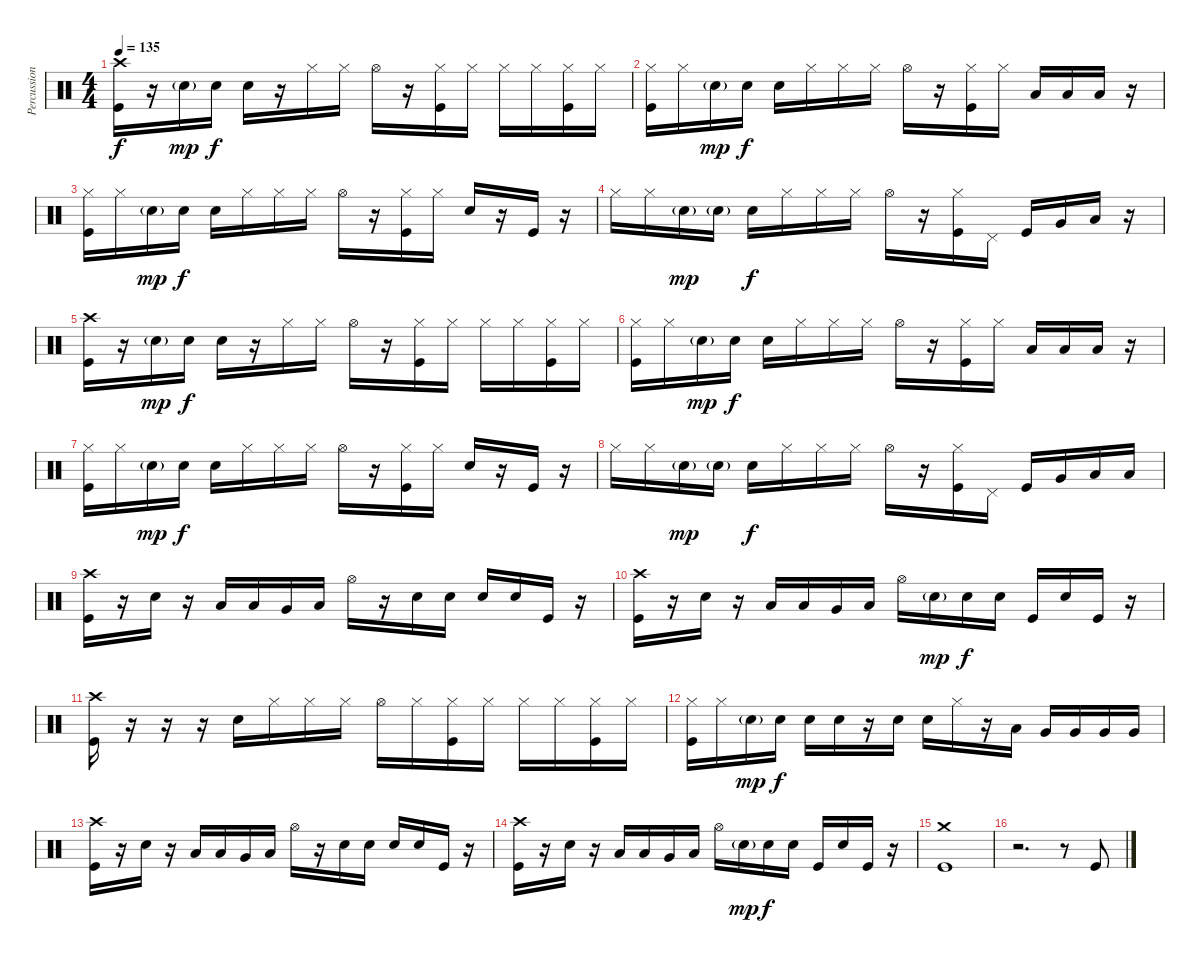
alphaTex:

\track ("Percussion" "Percussion") {instrument percussion}
\staff {score}
\articulation defaults
\ts (4 4)
\tempo 135
\clef neutral
\ks c
("Kick (hit)" "Crash high (hit)").16{dy f} r.16 "Electric Snare (hit)"{g}.16{dy mp} "Electric Snare (hit)".16{dy f} "Electric Snare (hit)".16 r.16 "Hi-Hat (closed)".16 "Hi-Hat (closed)".16 "Hi-Hat (open)".16 r.16 ("Kick (hit)" "Hi-Hat (closed)").16 "Hi-Hat (closed)".16 "Hi-Hat (closed)".16 "Hi-Hat (closed)".16 ("Kick (hit)" "Hi-Hat (closed)").16 "Hi-Hat (closed)".16 |
("Kick (hit)" "Hi-Hat (closed)").16 "Hi-Hat (closed)".16 "Electric Snare (hit)"{g}.16{dy mp} "Electric Snare (hit)".16{dy f} "Electric Snare (hit)".16 "Hi-Hat (closed)".16 "Hi-Hat (closed)".16 "Hi-Hat (closed)".16 "Hi-Hat (open)".16 r.16 ("Kick (hit)" "Hi-Hat (closed)").16 "Hi-Hat (closed)".16 "Low Tom (hit)".16 "Low Tom (hit)".16 "Low Floor Tom (hit)".16 r.16 |
("Kick (hit)" "Hi-Hat (closed)").16 "Hi-Hat (closed)".16 "Electric Snare (hit)"{g}.16{dy mp} "Electric Snare (hit)".16{dy f} "Electric Snare (hit)".16 "Hi-Hat (closed)".16 "Hi-Hat (closed)".16 "Hi-Hat (closed)".16 "Hi-Hat (open)".16 r.16 ("Kick (hit)" "Hi-Hat (closed)").16 "Hi-Hat (closed)".16 "Electric Snare (hit)".16 r.16 "Kick (hit)".16 r.16 |
"Hi-Hat (closed)".16 "Hi-Hat (closed)".16 "Electric Snare (hit)"{g}.16{dy mp} "Electric Snare (hit)"{g}.16 "Electric Snare (hit)".16{dy f} "Hi-Hat (closed)".16 "Hi-Hat (closed)".16 "Hi-Hat (closed)".16 "Hi-Hat (open)".16 r.16 ("Kick (hit)" "Hi-Hat (closed)").16 "Pedal Hi-Hat (hit)".16 "Kick (hit)".16 "Very Low Tom (hit)".16 "Low Floor Tom (hit)".16 r.16 |
("Kick (hit)" "Crash high (hit)").16 r.16 "Electric Snare (hit)"{g}.16{dy mp} "Electric Snare (hit)".16{dy f} "Electric Snare (hit)".16 r.16 "Hi-Hat (closed)".16 "Hi-Hat (closed)".16 "Hi-Hat (open)".16 r.16 ("Kick (hit)" "Hi-Hat (closed)").16 "Hi-Hat (closed)".16 "Hi-Hat (closed)".16 "Hi-Hat (closed)".16 ("Kick (hit)" "Hi-Hat (closed)").16 "Hi-Hat (closed)".16 |
("Kick (hit)" "Hi-Hat (closed)").16 "Hi-Hat (closed)".16 "Electric Snare (hit)"{g}.16{dy mp} "Electric Snare (hit)".16{dy f} "Electric Snare (hit)".16 "Hi-Hat (closed)".16 "Hi-Hat (closed)".16 "Hi-Hat (closed)".16 "Hi-Hat (open)".16 r.16 ("Kick (hit)" "Hi-Hat (closed)").16 "Hi-Hat (closed)".16 "Low Tom (hit)".16 "Low Tom (hit)".16 "Low Floor Tom (hit)".16 r.16 |
("Kick (hit)" "Hi-Hat (closed)").16 "Hi-Hat (closed)".16 "Electric Snare (hit)"{g}.16{dy mp} "Electric Snare (hit)".16{dy f} "Electric Snare (hit)".16 "Hi-Hat (closed)".16 "Hi-Hat (closed)".16 "Hi-Hat (closed)".16 "Hi-Hat (open)".16 r.16 ("Kick (hit)" "Hi-Hat (closed)").16 "Hi-Hat (closed)".16 "Electric Snare (hit)".16 r.16 "Kick (hit)".16 r.16 |
"Hi-Hat (closed)".16 "Hi-Hat (closed)".16 "Electric Snare (hit)"{g}.16{dy mp} "Electric Snare (hit)"{g}.16 "Electric Snare (hit)".16{dy f} "Hi-Hat (closed)".16 "Hi-Hat (closed)".16 "Hi-Hat (closed)".16 "Hi-Hat (open)".16 r.16 ("Kick (hit)" "Hi-Hat (closed)").16 "Pedal Hi-Hat (hit)".16 "Kick (hit)".16 "Very Low Tom (hit)".16 "Low Floor Tom (hit)".16 "Low Floor Tom (hit)".16 |
("Kick (hit)" "Crash high (hit)").16 r.16 "Electric Snare (hit)".16 r.16 "Low Tom (hit)".16 "Low Tom (hit)".16 "Very Low Tom (hit)".16 "Low Floor Tom (hit)".16 "Hi-Hat (open)".16 r.16 "Electric Snare (hit)".16 "Electric Snare (hit)".16 "Electric Snare (hit)".16 "Electric Snare (hit)".16 "Kick (hit)".16 r.16 |
("Kick (hit)" "Crash high (hit)").16 r.16 "Electric Snare (hit)".16 r.16 "Low Tom (hit)".16 "Low Tom (hit)".16 "Very Low Tom (hit)".16 "Low Floor Tom (hit)".16 "Hi-Hat (open)".16 "Electric Snare (hit)"{g}.16{dy mp} "Electric Snare (hit)".16{dy f} "Electric Snare (hit)".16 "Kick (hit)".16 "Electric Snare (hit)".16 "Kick (hit)".16 r.16 |
("Kick (hit)" "Crash high (hit)").16 r.16 r.16 r.16 "Electric Snare (hit)".16 "Hi-Hat (closed)".16 "Hi-Hat (closed)".16 "Hi-Hat (closed)".16 "Hi-Hat (open)".16 "Hi-Hat (closed)".16 ("Kick (hit)" "Hi-Hat (closed)").16 "Hi-Hat (closed)".16 "Hi-Hat (closed)".16 "Hi-Hat (closed)".16 ("Kick (hit)" "Hi-Hat (closed)").16 "Hi-Hat (closed)".16 |
("Kick (hit)" "Hi-Hat (closed)").16 "Hi-Hat (closed)".16 "Electric Snare (hit)"{g}.16{dy mp} "Electric Snare (hit)".16{dy f} "Electric Snare (hit)".16 "Electric Snare (hit)".16 r.16 "Electric Snare (hit)".16 "Electric Snare (hit)".16 "Hi-Hat (closed)".16 r.16 "Low Tom (hit)".16 "Very Low Tom (hit)".16 "Very Low Tom (hit)".16 "Very Low Tom (hit)".16 "Very Low Tom (hit)".16 |
("Kick (hit)" "Crash high (hit)").16 r.16 "Electric Snare (hit)".16 r.16 "Low Tom (hit)".16 "Low Tom (hit)".16 "Very Low Tom (hit)".16 "Low Floor Tom (hit)".16 "Hi-Hat (open)".16 r.16 "Electric Snare (hit)".16 "Electric Snare (hit)".16 "Electric Snare (hit)".16 "Electric Snare (hit)".16 "Kick (hit)".16 r.16 |
("Kick (hit)" "Crash high (hit)").16 r.16 "Electric Snare (hit)".16 r.16 "Low Tom (hit)".16 "Low Tom (hit)".16 "Very Low Tom (hit)".16 "Low Floor Tom (hit)".16 "Hi-Hat (open)".16 "Electric Snare (hit)"{g}.16{dy mp} "Electric Snare (hit)".16{dy f} "Electric Snare (hit)".16 "Kick (hit)".16 "Electric Snare (hit)".16 "Kick (hit)".16 r.16 |
("Kick (hit)" "Crash medium (hit)").1 |
r.2{d} r.8 "Kick (hit)".8
